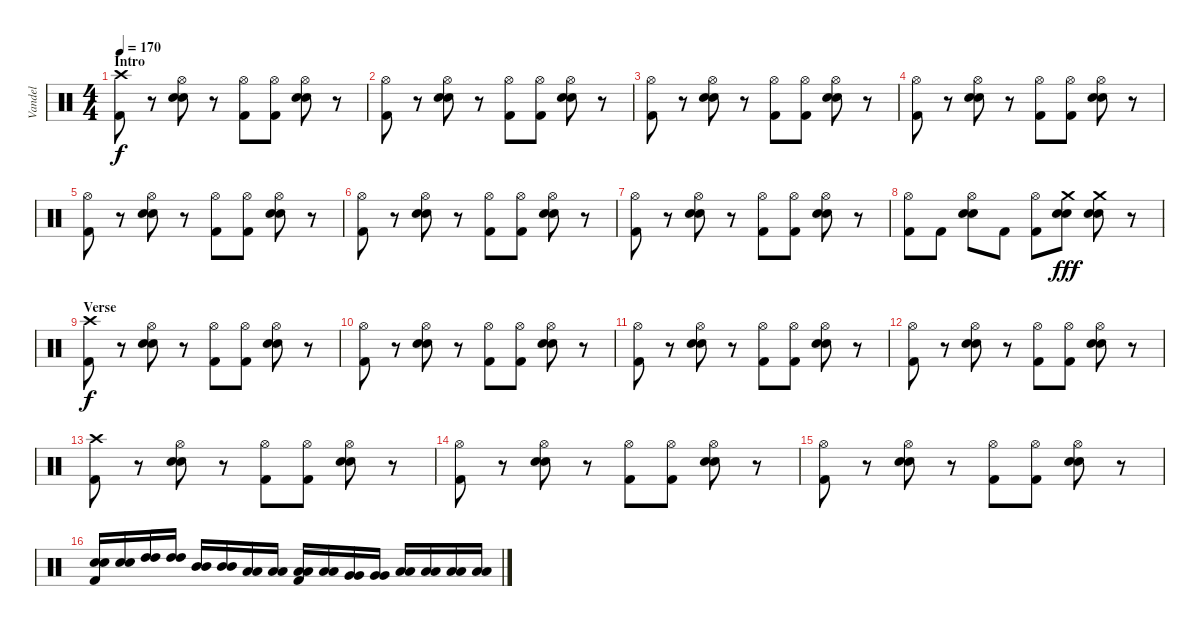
\track ("Vandel" "Vandel") {instrument percussion}
\staff {score}
\articulation defaults
\ts (4 4)
\section ("" "Intro")
\tempo 170
\clef neutral
\ks c
("Crash high (hit)" "Kick (hit) 2").8{dy f} r.8 ("Hi-Hat (open)" "Electric Snare (hit)" "Electric Snare (hit)").8 r.8 ("Hi-Hat (open)" "Kick (hit) 2").8 ("Hi-Hat (open)" "Kick (hit) 2").8 ("Hi-Hat (open)" "Electric Snare (hit)" "Electric Snare (hit)").8 r.8 |
("Hi-Hat (open)" "Kick (hit) 2").8 r.8 ("Hi-Hat (open)" "Electric Snare (hit)" "Electric Snare (hit)").8 r.8 ("Hi-Hat (open)" "Kick (hit) 2").8 ("Hi-Hat (open)" "Kick (hit) 2").8 ("Hi-Hat (open)" "Electric Snare (hit)" "Electric Snare (hit)").8 r.8 |
("Hi-Hat (open)" "Kick (hit) 2").8 r.8 ("Hi-Hat (open)" "Electric Snare (hit)" "Electric Snare (hit)").8 r.8 ("Hi-Hat (open)" "Kick (hit) 2").8 ("Hi-Hat (open)" "Kick (hit) 2").8 ("Hi-Hat (open)" "Electric Snare (hit)" "Electric Snare (hit)").8 r.8 |
("Hi-Hat (open)" "Kick (hit) 2").8 r.8 ("Hi-Hat (open)" "Electric Snare (hit)" "Electric Snare (hit)").8 r.8 ("Hi-Hat (open)" "Kick (hit) 2").8 ("Hi-Hat (open)" "Kick (hit) 2").8 ("Hi-Hat (open)" "Electric Snare (hit)" "Electric Snare (hit)").8 r.8 |
("Hi-Hat (open)" "Kick (hit) 2").8 r.8 ("Hi-Hat (open)" "Electric Snare (hit)" "Electric Snare (hit)").8 r.8 ("Hi-Hat (open)" "Kick (hit) 2").8 ("Hi-Hat (open)" "Kick (hit) 2").8 ("Hi-Hat (open)" "Electric Snare (hit)" "Electric Snare (hit)").8 r.8 |
("Hi-Hat (open)" "Kick (hit) 2").8 r.8 ("Hi-Hat (open)" "Electric Snare (hit)" "Electric Snare (hit)").8 r.8 ("Hi-Hat (open)" "Kick (hit) 2").8 ("Hi-Hat (open)" "Kick (hit) 2").8 ("Hi-Hat (open)" "Electric Snare (hit)" "Electric Snare (hit)").8 r.8 |
("Hi-Hat (open)" "Kick (hit) 2").8 r.8 ("Hi-Hat (open)" "Electric Snare (hit)" "Electric Snare (hit)").8 r.8 ("Hi-Hat (open)" "Kick (hit) 2").8 ("Hi-Hat (open)" "Kick (hit) 2").8 ("Hi-Hat (open)" "Electric Snare (hit)" "Electric Snare (hit)").8 r.8 |
("Hi-Hat (open)" "Kick (hit) 2").8 "Kick (hit) 2".8 ("Hi-Hat (open)" "Electric Snare (hit)" "Electric Snare (hit)").8 "Kick (hit) 2".8 ("Hi-Hat (open)" "Kick (hit) 2").8 ("Crash medium (hit)" "Electric Snare (hit)" "Electric Snare (hit)").8{dy fff} ("Crash medium (hit)" "Electric Snare (hit)" "Electric Snare (hit)").8 r.8 |
\section ("" "Verse")
("Crash high (hit)" "Kick (hit) 2").8{dy f} r.8 ("Hi-Hat (open)" "Electric Snare (hit)" "Electric Snare (hit)").8 r.8 ("Hi-Hat (open)" "Kick (hit) 2").8 ("Hi-Hat (open)" "Kick (hit) 2").8 ("Hi-Hat (open)" "Electric Snare (hit)" "Electric Snare (hit)").8 r.8 |
("Hi-Hat (open)" "Kick (hit) 2").8 r.8 ("Hi-Hat (open)" "Electric Snare (hit)" "Electric Snare (hit)").8 r.8 ("Hi-Hat (open)" "Kick (hit) 2").8 ("Hi-Hat (open)" "Kick (hit) 2").8 ("Hi-Hat (open)" "Electric Snare (hit)" "Electric Snare (hit)").8 r.8 |
("Hi-Hat (open)" "Kick (hit) 2").8 r.8 ("Hi-Hat (open)" "Electric Snare (hit)" "Electric Snare (hit)").8 r.8 ("Hi-Hat (open)" "Kick (hit) 2").8 ("Hi-Hat (open)" "Kick (hit) 2").8 ("Hi-Hat (open)" "Electric Snare (hit)" "Electric Snare (hit)").8 r.8 |
("Hi-Hat (open)" "Kick (hit) 2").8 r.8 ("Hi-Hat (open)" "Electric Snare (hit)" "Electric Snare (hit)").8 r.8 ("Hi-Hat (open)" "Kick (hit) 2").8 ("Hi-Hat (open)" "Kick (hit) 2").8 ("Hi-Hat (open)" "Electric Snare (hit)" "Electric Snare (hit)").8 r.8 |
("Crash high (hit)" "Kick (hit) 2").8 r.8 ("Hi-Hat (open)" "Electric Snare (hit)" "Electric Snare (hit)").8 r.8 ("Hi-Hat (open)" "Kick (hit) 2").8 ("Hi-Hat (open)" "Kick (hit) 2").8 ("Hi-Hat (open)" "Electric Snare (hit)" "Electric Snare (hit)").8 r.8 |
("Hi-Hat (open)" "Kick (hit) 2").8 r.8 ("Hi-Hat (open)" "Electric Snare (hit)" "Electric Snare (hit)").8 r.8 ("Hi-Hat (open)" "Kick (hit) 2").8 ("Hi-Hat (open)" "Kick (hit) 2").8 ("Hi-Hat (open)" "Electric Snare (hit)" "Electric Snare (hit)").8 r.8 |
("Hi-Hat (open)" "Kick (hit) 2").8 r.8 ("Hi-Hat (open)" "Electric Snare (hit)" "Electric Snare (hit)").8 r.8 ("Hi-Hat (open)" "Kick (hit) 2").8 ("Hi-Hat (open)" "Kick (hit) 2").8 ("Hi-Hat (open)" "Electric Snare (hit)" "Electric Snare (hit)").8 r.8 |
("Kick (hit) 2" "Electric Snare (hit)" "Electric Snare (hit)").16 ("Electric Snare (hit)" "Electric Snare (hit)").16 ("High Tom (hit)" "High Tom (hit)").16 ("High Tom (hit)" "High Tom (hit)").16 ("Mid Tom (hit)" "Mid Tom (hit)").16 ("Mid Tom (hit)" "Mid Tom (hit)").16 ("Low Tom (hit)" "Low Tom (hit)").16 ("Low Tom (hit)" "Low Tom (hit)").16 ("Kick (hit) 2" "Low Tom (hit)" "Low Tom (hit)").16 ("Low Tom (hit)" "Low Tom (hit)").16 ("Very Low Tom (hit)" "Very Low Tom (hit)").16 ("Very Low Tom (hit)" "Very Low Tom (hit)").16 ("Low Floor Tom (hit)" "Low Floor Tom (hit)").16 ("Low Floor Tom (hit)" "Low Floor Tom (hit)").16 ("Low Floor Tom (hit)" "Low Floor Tom (hit)").16 ("Low Floor Tom (hit)" "Low Floor Tom (hit)").16
